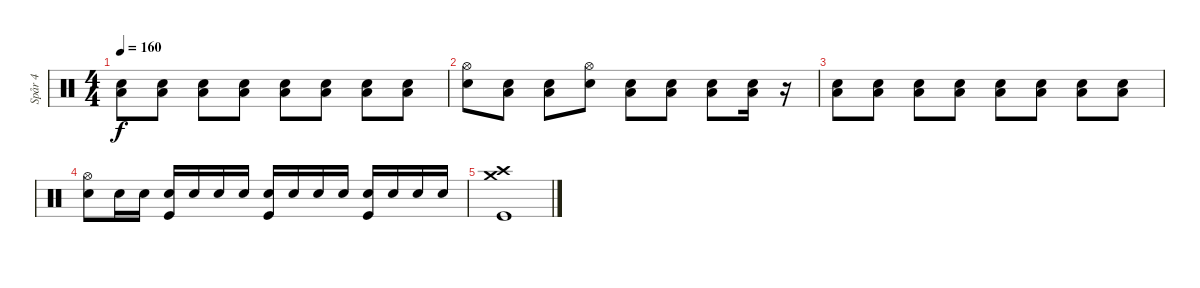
\track ("Spår 4" "Spår 4") {instrument percussion}
\staff {score}
\articulation defaults
\ts (4 4)
\tempo 160
\clef neutral
\ks c
("Low Floor Tom (hit)" "Snare (hit) 2").8{dy f volume 13} ("Low Floor Tom (hit)" "Snare (hit) 2").8 ("Low Floor Tom (hit)" "Snare (hit) 2").8 ("Low Floor Tom (hit)" "Snare (hit) 2").8 ("Low Floor Tom (hit)" "Snare (hit) 2").8 ("Low Floor Tom (hit)" "Snare (hit) 2").8 ("Low Floor Tom (hit)" "Snare (hit) 2").8 ("Low Floor Tom (hit)" "Snare (hit) 2").8 |
("Hi-Hat (open)" "Snare (hit) 2").8 ("Low Floor Tom (hit)" "Snare (hit) 2").8 ("Low Floor Tom (hit)" "Snare (hit) 2").8 ("Hi-Hat (open)" "Snare (hit) 2").8 ("Low Floor Tom (hit)" "Snare (hit) 2").8 ("Low Floor Tom (hit)" "Snare (hit) 2").8 ("Low Floor Tom (hit)" "Snare (hit) 2").8 ("Low Floor Tom (hit)" "Snare (hit) 2").16 r.16{volume 9} |
("Low Floor Tom (hit)" "Snare (hit) 2").8{volume 13} ("Low Floor Tom (hit)" "Snare (hit) 2").8 ("Low Floor Tom (hit)" "Snare (hit) 2").8 ("Low Floor Tom (hit)" "Snare (hit) 2").8 ("Low Floor Tom (hit)" "Snare (hit) 2").8 ("Low Floor Tom (hit)" "Snare (hit) 2").8 ("Low Floor Tom (hit)" "Snare (hit) 2").8 ("Low Floor Tom (hit)" "Snare (hit) 2").8 |
("Hi-Hat (open)" "Snare (hit) 2").8 "Snare (hit) 2".16 "Snare (hit) 2".16 ("Snare (hit) 2" "Kick (hit)").16 "Snare (hit) 2".16 "Snare (hit) 2".16 "Snare (hit) 2".16 ("Snare (hit) 2" "Kick (hit)").16 "Snare (hit) 2".16 "Snare (hit) 2".16 "Snare (hit) 2".16 ("Snare (hit) 2" "Kick (hit)").16 "Snare (hit) 2".16 "Snare (hit) 2".16 "Snare (hit) 2".16 |
("Crash medium (hit)" "Crash high (hit)" "Kick (hit)").1
